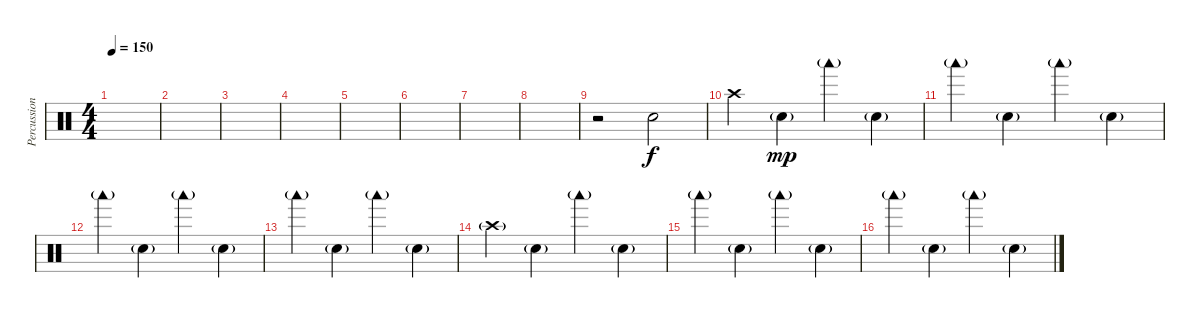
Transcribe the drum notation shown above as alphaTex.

\track ("Percussion" "Percussion") {instrument percussion}
\staff {score}
\articulation defaults
\ts (4 4)
\tempo 150
\clef neutral
\ks c
|
|
|
|
|
|
|
|
r.2 "Snare (hit) 2".2 |
"Crash high (hit)".4 "Snare (hit) 2"{g}.4{dy mp} "Woodblock low (hit)"{g}.4 "Snare (hit) 2"{g}.4 |
"Woodblock low (hit)"{g}.4 "Snare (hit) 2"{g}.4 "Woodblock low (hit)"{g}.4 "Snare (hit) 2"{g}.4 |
"Woodblock low (hit)"{g}.4 "Snare (hit) 2"{g}.4 "Woodblock low (hit)"{g}.4 "Snare (hit) 2"{g}.4 |
"Woodblock low (hit)"{g}.4 "Snare (hit) 2"{g}.4 "Woodblock low (hit)"{g}.4 "Snare (hit) 2"{g}.4 |
"Crash high (hit)"{g}.4 "Snare (hit) 2"{g}.4 "Woodblock low (hit)"{g}.4 "Snare (hit) 2"{g}.4 |
"Woodblock low (hit)"{g}.4 "Snare (hit) 2"{g}.4 "Woodblock low (hit)"{g}.4 "Snare (hit) 2"{g}.4 |
"Woodblock low (hit)"{g}.4 "Snare (hit) 2"{g}.4 "Woodblock low (hit)"{g}.4 "Snare (hit) 2"{g}.4
